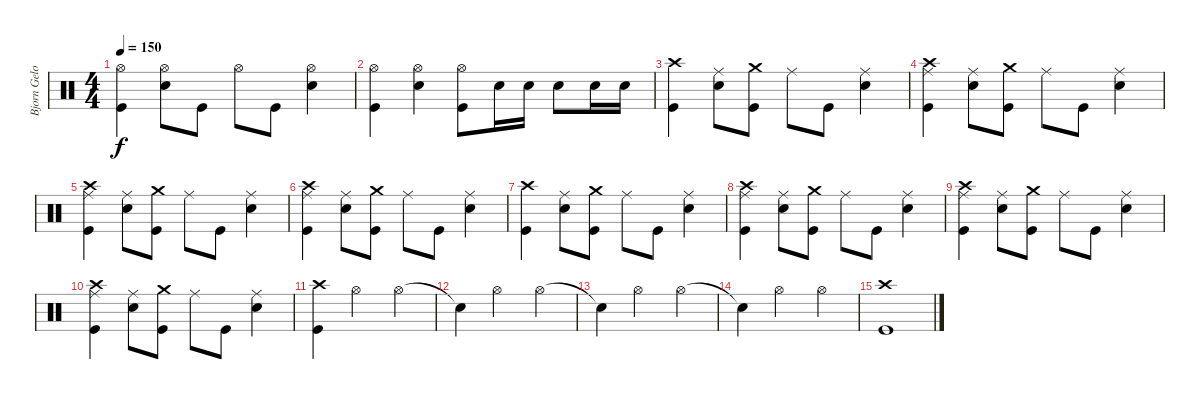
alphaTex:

\track ("Bjorn Gelotte-Drum" "Bjorn Gelo") {instrument percussion}
\staff {score}
\articulation defaults
\ts (4 4)
\tempo 150
\clef neutral
\ks c
("Kick (hit)" "Hi-Hat (open)").4{dy f} ("Electric Snare (hit)" "Hi-Hat (open)").8 "Kick (hit)".8 "Hi-Hat (open)".8 "Kick (hit)".8 ("Electric Snare (hit)" "Hi-Hat (open)").4 |
("Kick (hit)" "Hi-Hat (open)").4 ("Electric Snare (hit)" "Hi-Hat (open)").4 ("Kick (hit)" "Hi-Hat (open)").8 "Electric Snare (hit)".16 "Electric Snare (hit)".16 "Electric Snare (hit)".8 "Electric Snare (hit)".16 "Electric Snare (hit)".16 |
("Kick (hit)" "Crash high (hit)").4 ("Electric Snare (hit)" "Ride (middle)").8 ("Kick (hit)" "Crash medium (hit)").8 "Ride (middle)".8 "Kick (hit)".8 ("Electric Snare (hit)" "Ride (middle)").4 |
("Kick (hit)" "Ride (middle)" "Crash high (hit)").4 ("Electric Snare (hit)" "Ride (middle)").8 ("Kick (hit)" "Crash medium (hit)").8 "Ride (middle)".8 "Kick (hit)".8 ("Electric Snare (hit)" "Ride (middle)").4 |
("Kick (hit)" "Ride (middle)" "Crash high (hit)").4 ("Electric Snare (hit)" "Ride (middle)").8 ("Kick (hit)" "Crash medium (hit)").8 "Ride (middle)".8 "Kick (hit)".8 ("Electric Snare (hit)" "Ride (middle)").4 |
("Kick (hit)" "Ride (middle)" "Crash high (hit)").4 ("Electric Snare (hit)" "Ride (middle)").8 ("Kick (hit)" "Crash medium (hit)").8 "Ride (middle)".8 "Kick (hit)".8 ("Electric Snare (hit)" "Ride (middle)").4 |
("Kick (hit)" "Crash high (hit)").4 ("Electric Snare (hit)" "Ride (middle)").8 ("Kick (hit)" "Crash medium (hit)").8 "Ride (middle)".8 "Kick (hit)".8 ("Electric Snare (hit)" "Ride (middle)").4 |
("Kick (hit)" "Ride (middle)" "Crash high (hit)").4 ("Electric Snare (hit)" "Ride (middle)").8 ("Kick (hit)" "Crash medium (hit)").8 "Ride (middle)".8 "Kick (hit)".8 ("Electric Snare (hit)" "Ride (middle)").4 |
("Kick (hit)" "Ride (middle)" "Crash high (hit)").4 ("Electric Snare (hit)" "Ride (middle)").8 ("Kick (hit)" "Crash medium (hit)").8 "Ride (middle)".8 "Kick (hit)".8 ("Electric Snare (hit)" "Ride (middle)").4 |
("Kick (hit)" "Ride (middle)" "Crash high (hit)").4 ("Electric Snare (hit)" "Ride (middle)").8 ("Kick (hit)" "Crash medium (hit)").8 "Ride (middle)".8 "Kick (hit)".8 ("Electric Snare (hit)" "Ride (middle)").4 |
("Kick (hit)" "Crash high (hit)").4 "Hi-Hat (open)".2 "Hi-Hat (open)".4 |
"Snare (hit)"{t}.4 "Hi-Hat (open)".2 "Hi-Hat (open)".4 |
"Snare (hit)"{t}.4 "Hi-Hat (open)".2 "Hi-Hat (open)".4 |
"Snare (hit)"{t}.4 "Hi-Hat (open)".2 "Hi-Hat (open)".4 |
("Kick (hit)" "Crash high (hit)").1
